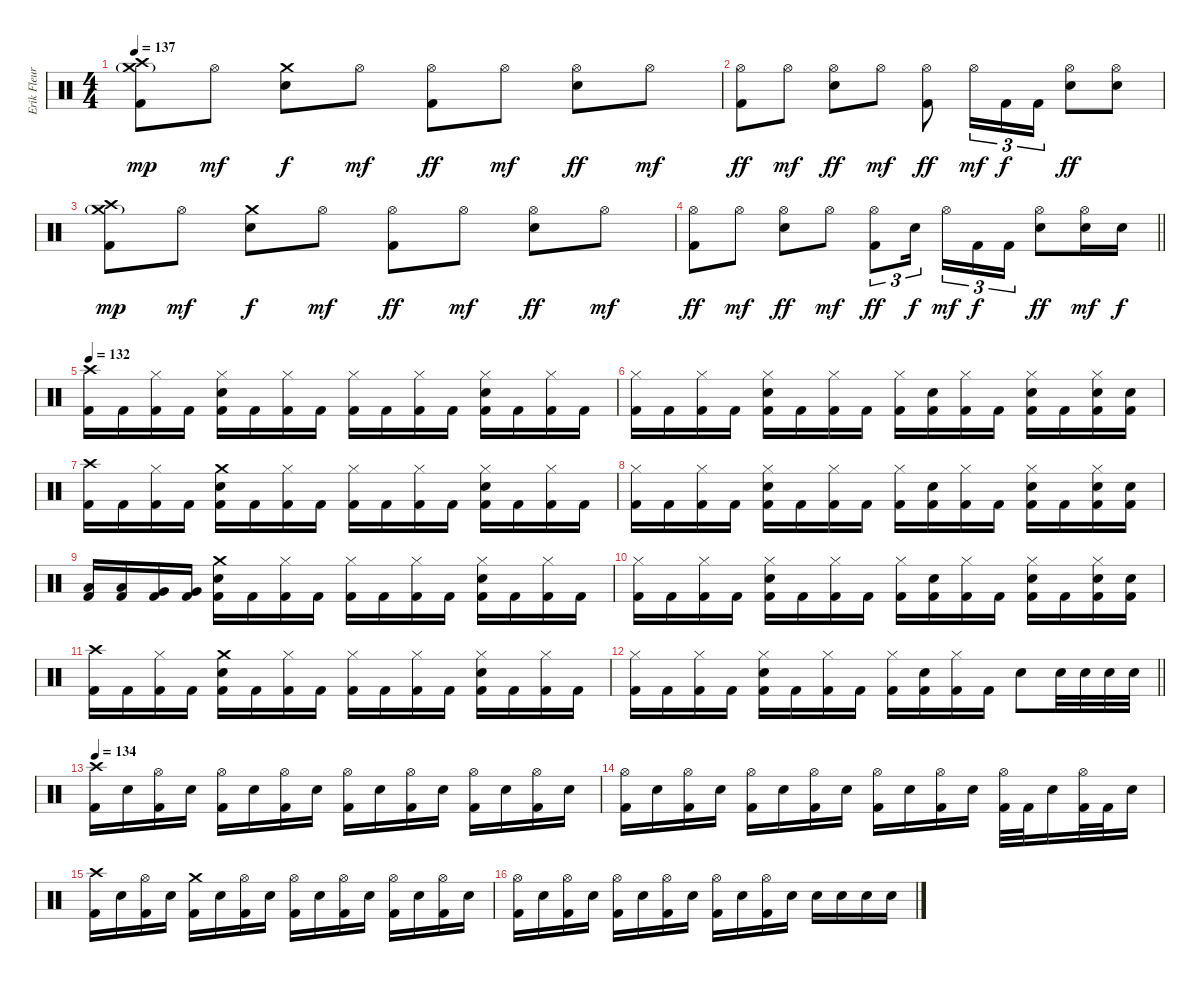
\track ("Erik Fleuren" "Erik Fleur") {instrument percussion}
\staff {score}
\articulation defaults
\ts (4 4)
\tempo 137
\clef neutral
\ks c
("Crash high (hit)" "Crash medium (hit)"{g} "Kick (hit) 2").8{dy mp} "Hi-Hat (open)".8{dy mf} ("Crash medium (hit)" "Electric Snare (hit)").8{dy f} "Hi-Hat (open)".8{dy mf} ("Hi-Hat (open)" "Kick (hit) 2").8{dy ff} "Hi-Hat (open)".8{dy mf} ("Hi-Hat (open)" "Electric Snare (hit)").8{dy ff} "Hi-Hat (open)".8{dy mf} |
("Hi-Hat (open)" "Kick (hit) 2").8{dy ff} "Hi-Hat (open)".8{dy mf} ("Hi-Hat (open)" "Electric Snare (hit)").8{dy ff} "Hi-Hat (open)".8{dy mf} ("Hi-Hat (open)" "Kick (hit) 2").8{dy ff} "Hi-Hat (open)".16{tu (3 2) dy mf} "Kick (hit) 2".16{tu (3 2) dy f} "Kick (hit) 2".16{tu (3 2)} ("Hi-Hat (open)" "Electric Snare (hit)").8{dy ff} ("Hi-Hat (open)" "Electric Snare (hit)").8 |
("Crash high (hit)" "Crash medium (hit)"{g} "Kick (hit) 2").8{dy mp} "Hi-Hat (open)".8{dy mf} ("Crash medium (hit)" "Electric Snare (hit)").8{dy f} "Hi-Hat (open)".8{dy mf} ("Hi-Hat (open)" "Kick (hit) 2").8{dy ff} "Hi-Hat (open)".8{dy mf} ("Hi-Hat (open)" "Electric Snare (hit)").8{dy ff} "Hi-Hat (open)".8{dy mf} |
\barLineRight lightlight
("Hi-Hat (open)" "Kick (hit) 2").8{dy ff} "Hi-Hat (open)".8{dy mf} ("Hi-Hat (open)" "Electric Snare (hit)").8{dy ff} "Hi-Hat (open)".8{dy mf} ("Hi-Hat (open)" "Kick (hit) 2").8{tu (3 2) dy ff} "Electric Snare (hit)".16{tu (3 2) dy f beam splitsecondary} "Hi-Hat (open)".16{tu (3 2) dy mf} "Kick (hit) 2".16{tu (3 2) dy f} "Kick (hit) 2".16{tu (3 2)} ("Hi-Hat (open)" "Electric Snare (hit)").8{dy ff} ("Hi-Hat (open)" "Electric Snare (hit)").16{dy mf} "Electric Snare (hit)".16{dy f} |
\tempo 132
("Crash high (hit)" "Kick (hit) 2").16 "Kick (hit) 2".16 ("Hi-Hat (closed)" "Kick (hit) 2").16 "Kick (hit) 2".16 ("Hi-Hat (closed)" "Electric Snare (hit)" "Kick (hit) 2").16 "Kick (hit) 2".16 ("Hi-Hat (closed)" "Kick (hit) 2").16 "Kick (hit) 2".16 ("Hi-Hat (closed)" "Kick (hit) 2").16 "Kick (hit) 2".16 ("Hi-Hat (closed)" "Kick (hit) 2").16 "Kick (hit) 2".16 ("Hi-Hat (closed)" "Electric Snare (hit)" "Kick (hit) 2").16 "Kick (hit) 2".16 ("Hi-Hat (closed)" "Kick (hit) 2").16 "Kick (hit) 2".16 |
("Hi-Hat (closed)" "Kick (hit) 2").16 "Kick (hit) 2".16 ("Hi-Hat (closed)" "Kick (hit) 2").16 "Kick (hit) 2".16 ("Hi-Hat (closed)" "Electric Snare (hit)" "Kick (hit) 2").16 "Kick (hit) 2".16 ("Hi-Hat (closed)" "Kick (hit) 2").16 "Kick (hit) 2".16 ("Hi-Hat (closed)" "Kick (hit) 2").16 ("Electric Snare (hit)" "Kick (hit) 2").16 ("Hi-Hat (closed)" "Kick (hit) 2").16 "Kick (hit) 2".16 ("Hi-Hat (closed)" "Electric Snare (hit)" "Kick (hit) 2").16 "Kick (hit) 2".16 ("Hi-Hat (closed)" "Electric Snare (hit)" "Kick (hit) 2").16 ("Electric Snare (hit)" "Kick (hit) 2").16 |
("Crash high (hit)" "Kick (hit) 2").16 "Kick (hit) 2".16 ("Hi-Hat (closed)" "Kick (hit) 2").16 "Kick (hit) 2".16 ("Crash medium (hit)" "Electric Snare (hit)" "Kick (hit) 2").16 "Kick (hit) 2".16 ("Hi-Hat (closed)" "Kick (hit) 2").16 "Kick (hit) 2".16 ("Hi-Hat (closed)" "Kick (hit) 2").16 "Kick (hit) 2".16 ("Hi-Hat (closed)" "Kick (hit) 2").16 "Kick (hit) 2".16 ("Hi-Hat (closed)" "Electric Snare (hit)" "Kick (hit) 2").16 "Kick (hit) 2".16 ("Hi-Hat (closed)" "Kick (hit) 2").16 "Kick (hit) 2".16 |
("Hi-Hat (closed)" "Kick (hit) 2").16 "Kick (hit) 2".16 ("Hi-Hat (closed)" "Kick (hit) 2").16 "Kick (hit) 2".16 ("Hi-Hat (closed)" "Electric Snare (hit)" "Kick (hit) 2").16 "Kick (hit) 2".16 ("Hi-Hat (closed)" "Kick (hit) 2").16 "Kick (hit) 2".16 ("Hi-Hat (closed)" "Kick (hit) 2").16 ("Electric Snare (hit)" "Kick (hit) 2").16 ("Hi-Hat (closed)" "Kick (hit) 2").16 "Kick (hit) 2".16 ("Hi-Hat (closed)" "Electric Snare (hit)" "Kick (hit) 2").16 "Kick (hit) 2".16 ("Hi-Hat (closed)" "Electric Snare (hit)" "Kick (hit) 2").16 ("Electric Snare (hit)" "Kick (hit) 2").16 |
("Low Tom (hit)" "Kick (hit) 2").16 ("Low Tom (hit)" "Kick (hit) 2").16 ("Very Low Tom (hit)" "Kick (hit) 2").16 ("Very Low Tom (hit)" "Kick (hit) 2").16 ("Crash medium (hit)" "Electric Snare (hit)" "Kick (hit) 2").16 "Kick (hit) 2".16 ("Hi-Hat (closed)" "Kick (hit) 2").16 "Kick (hit) 2".16 ("Hi-Hat (closed)" "Kick (hit) 2").16 "Kick (hit) 2".16 ("Hi-Hat (closed)" "Kick (hit) 2").16 "Kick (hit) 2".16 ("Hi-Hat (closed)" "Electric Snare (hit)" "Kick (hit) 2").16 "Kick (hit) 2".16 ("Hi-Hat (closed)" "Kick (hit) 2").16 "Kick (hit) 2".16 |
("Hi-Hat (closed)" "Kick (hit) 2").16 "Kick (hit) 2".16 ("Hi-Hat (closed)" "Kick (hit) 2").16 "Kick (hit) 2".16 ("Hi-Hat (closed)" "Electric Snare (hit)" "Kick (hit) 2").16 "Kick (hit) 2".16 ("Hi-Hat (closed)" "Kick (hit) 2").16 "Kick (hit) 2".16 ("Hi-Hat (closed)" "Kick (hit) 2").16 ("Electric Snare (hit)" "Kick (hit) 2").16 ("Hi-Hat (closed)" "Kick (hit) 2").16 "Kick (hit) 2".16 ("Hi-Hat (closed)" "Electric Snare (hit)" "Kick (hit) 2").16 "Kick (hit) 2".16 ("Hi-Hat (closed)" "Electric Snare (hit)" "Kick (hit) 2").16 ("Electric Snare (hit)" "Kick (hit) 2").16 |
("Crash high (hit)" "Kick (hit) 2").16 "Kick (hit) 2".16 ("Hi-Hat (closed)" "Kick (hit) 2").16 "Kick (hit) 2".16 ("Crash medium (hit)" "Electric Snare (hit)" "Kick (hit) 2").16 "Kick (hit) 2".16 ("Hi-Hat (closed)" "Kick (hit) 2").16 "Kick (hit) 2".16 ("Hi-Hat (closed)" "Kick (hit) 2").16 "Kick (hit) 2".16 ("Hi-Hat (closed)" "Kick (hit) 2").16 "Kick (hit) 2".16 ("Hi-Hat (closed)" "Electric Snare (hit)" "Kick (hit) 2").16 "Kick (hit) 2".16 ("Hi-Hat (closed)" "Kick (hit) 2").16 "Kick (hit) 2".16 |
\barLineRight lightlight
("Hi-Hat (closed)" "Kick (hit) 2").16 "Kick (hit) 2".16 ("Hi-Hat (closed)" "Kick (hit) 2").16 "Kick (hit) 2".16 ("Hi-Hat (closed)" "Electric Snare (hit)" "Kick (hit) 2").16 "Kick (hit) 2".16 ("Hi-Hat (closed)" "Kick (hit) 2").16 "Kick (hit) 2".16 ("Hi-Hat (closed)" "Kick (hit) 2").16 ("Electric Snare (hit)" "Kick (hit) 2").16 ("Hi-Hat (closed)" "Kick (hit) 2").16 "Kick (hit) 2".16 "Electric Snare (hit)".8 "Electric Snare (hit)".32 "Electric Snare (hit)".32 "Electric Snare (hit)".32 "Electric Snare (hit)".32 |
\tempo 134
("Crash high (hit)" "Kick (hit) 2").16 "Electric Snare (hit)".16 ("Hi-Hat (open)" "Kick (hit) 2").16 "Electric Snare (hit)".16 ("Hi-Hat (open)" "Kick (hit) 2").16 "Electric Snare (hit)".16 ("Hi-Hat (open)" "Kick (hit) 2").16 "Electric Snare (hit)".16 ("Hi-Hat (open)" "Kick (hit) 2").16 "Electric Snare (hit)".16 ("Hi-Hat (open)" "Kick (hit) 2").16 "Electric Snare (hit)".16 ("Hi-Hat (open)" "Kick (hit) 2").16 "Electric Snare (hit)".16 ("Hi-Hat (open)" "Kick (hit) 2").16 "Electric Snare (hit)".16 |
("Hi-Hat (open)" "Kick (hit) 2").16 "Electric Snare (hit)".16 ("Hi-Hat (open)" "Kick (hit) 2").16 "Electric Snare (hit)".16 ("Hi-Hat (open)" "Kick (hit) 2").16 "Electric Snare (hit)".16 ("Hi-Hat (open)" "Kick (hit) 2").16 "Electric Snare (hit)".16 ("Hi-Hat (open)" "Kick (hit) 2").16 "Electric Snare (hit)".16 ("Hi-Hat (open)" "Kick (hit) 2").16 "Electric Snare (hit)".16 ("Hi-Hat (open)" "Kick (hit) 2").32 "Kick (hit) 2".32 "Electric Snare (hit)".16 ("Hi-Hat (open)" "Kick (hit) 2").32 "Kick (hit) 2".32 "Electric Snare (hit)".16 |
("Crash high (hit)" "Kick (hit) 2").16 "Electric Snare (hit)".16 ("Hi-Hat (open)" "Kick (hit) 2").16 "Electric Snare (hit)".16 ("Crash medium (hit)" "Kick (hit) 2").16 "Electric Snare (hit)".16 ("Hi-Hat (open)" "Kick (hit) 2").16 "Electric Snare (hit)".16 ("Hi-Hat (open)" "Kick (hit) 2").16 "Electric Snare (hit)".16 ("Hi-Hat (open)" "Kick (hit) 2").16 "Electric Snare (hit)".16 ("Hi-Hat (open)" "Kick (hit) 2").16 "Electric Snare (hit)".16 ("Hi-Hat (open)" "Kick (hit) 2").16 "Electric Snare (hit)".16 |
("Hi-Hat (open)" "Kick (hit) 2").16 "Electric Snare (hit)".16 ("Hi-Hat (open)" "Kick (hit) 2").16 "Electric Snare (hit)".16 ("Hi-Hat (open)" "Kick (hit) 2").16 "Electric Snare (hit)".16 ("Hi-Hat (open)" "Kick (hit) 2").16 "Electric Snare (hit)".16 ("Hi-Hat (open)" "Kick (hit) 2").16 "Electric Snare (hit)".16 ("Hi-Hat (open)" "Kick (hit) 2").16 "Electric Snare (hit)".16 "Electric Snare (hit)".16 "Electric Snare (hit)".16 "Electric Snare (hit)".16 "Electric Snare (hit)".16
